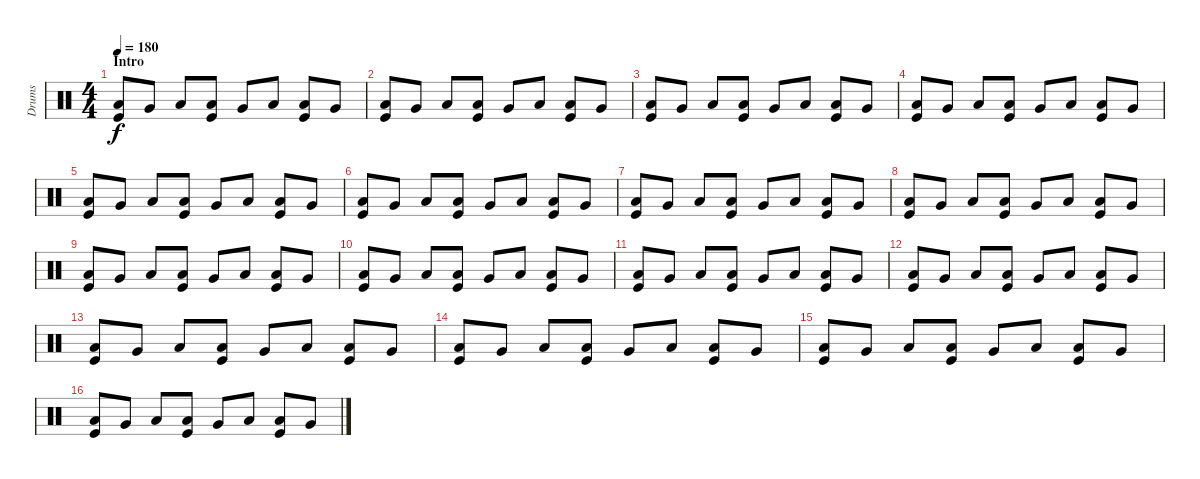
\track ("Drums" "Drums") {instrument percussion}
\staff {score}
\articulation defaults
\ts (4 4)
\section ("" "Intro")
\tempo 180
\clef neutral
\ks c
("Low Tom (hit)" "Kick (hit)").8{dy f} "Very Low Tom (hit)".8 "Low Floor Tom (hit)".8 ("Low Tom (hit)" "Kick (hit)").8 "Very Low Tom (hit)".8 "Low Floor Tom (hit)".8 ("Low Tom (hit)" "Kick (hit)").8 "Very Low Tom (hit)".8 |
("Low Tom (hit)" "Kick (hit)").8 "Very Low Tom (hit)".8 "Low Floor Tom (hit)".8 ("Low Tom (hit)" "Kick (hit)").8 "Very Low Tom (hit)".8 "Low Floor Tom (hit)".8 ("Low Tom (hit)" "Kick (hit)").8 "Very Low Tom (hit)".8 |
("Low Tom (hit)" "Kick (hit)").8 "Very Low Tom (hit)".8 "Low Floor Tom (hit)".8 ("Low Tom (hit)" "Kick (hit)").8 "Very Low Tom (hit)".8 "Low Floor Tom (hit)".8 ("Low Tom (hit)" "Kick (hit)").8 "Very Low Tom (hit)".8 |
("Low Tom (hit)" "Kick (hit)").8 "Very Low Tom (hit)".8 "Low Floor Tom (hit)".8 ("Low Tom (hit)" "Kick (hit)").8 "Very Low Tom (hit)".8 "Low Floor Tom (hit)".8 ("Low Tom (hit)" "Kick (hit)").8 "Very Low Tom (hit)".8 |
("Low Tom (hit)" "Kick (hit)").8 "Very Low Tom (hit)".8 "Low Floor Tom (hit)".8 ("Low Tom (hit)" "Kick (hit)").8 "Very Low Tom (hit)".8 "Low Floor Tom (hit)".8 ("Low Tom (hit)" "Kick (hit)").8 "Very Low Tom (hit)".8 |
("Low Tom (hit)" "Kick (hit)").8 "Very Low Tom (hit)".8 "Low Floor Tom (hit)".8 ("Low Tom (hit)" "Kick (hit)").8 "Very Low Tom (hit)".8 "Low Floor Tom (hit)".8 ("Low Tom (hit)" "Kick (hit)").8 "Very Low Tom (hit)".8 |
("Low Tom (hit)" "Kick (hit)").8 "Very Low Tom (hit)".8 "Low Floor Tom (hit)".8 ("Low Tom (hit)" "Kick (hit)").8 "Very Low Tom (hit)".8 "Low Floor Tom (hit)".8 ("Low Tom (hit)" "Kick (hit)").8 "Very Low Tom (hit)".8 |
("Low Tom (hit)" "Kick (hit)").8 "Very Low Tom (hit)".8 "Low Floor Tom (hit)".8 ("Low Tom (hit)" "Kick (hit)").8 "Very Low Tom (hit)".8 "Low Floor Tom (hit)".8 ("Low Tom (hit)" "Kick (hit)").8 "Very Low Tom (hit)".8 |
("Low Tom (hit)" "Kick (hit)").8 "Very Low Tom (hit)".8 "Low Floor Tom (hit)".8 ("Low Tom (hit)" "Kick (hit)").8 "Very Low Tom (hit)".8 "Low Floor Tom (hit)".8 ("Low Tom (hit)" "Kick (hit)").8 "Very Low Tom (hit)".8 |
("Low Tom (hit)" "Kick (hit)").8 "Very Low Tom (hit)".8 "Low Floor Tom (hit)".8 ("Low Tom (hit)" "Kick (hit)").8 "Very Low Tom (hit)".8 "Low Floor Tom (hit)".8 ("Low Tom (hit)" "Kick (hit)").8 "Very Low Tom (hit)".8 |
("Low Tom (hit)" "Kick (hit)").8 "Very Low Tom (hit)".8 "Low Floor Tom (hit)".8 ("Low Tom (hit)" "Kick (hit)").8 "Very Low Tom (hit)".8 "Low Floor Tom (hit)".8 ("Low Tom (hit)" "Kick (hit)").8 "Very Low Tom (hit)".8 |
("Low Tom (hit)" "Kick (hit)").8 "Very Low Tom (hit)".8 "Low Floor Tom (hit)".8 ("Low Tom (hit)" "Kick (hit)").8 "Very Low Tom (hit)".8 "Low Floor Tom (hit)".8 ("Low Tom (hit)" "Kick (hit)").8 "Very Low Tom (hit)".8 |
("Low Tom (hit)" "Kick (hit)").8 "Very Low Tom (hit)".8 "Low Floor Tom (hit)".8 ("Low Tom (hit)" "Kick (hit)").8 "Very Low Tom (hit)".8 "Low Floor Tom (hit)".8 ("Low Tom (hit)" "Kick (hit)").8 "Very Low Tom (hit)".8 |
("Low Tom (hit)" "Kick (hit)").8 "Very Low Tom (hit)".8 "Low Floor Tom (hit)".8 ("Low Tom (hit)" "Kick (hit)").8 "Very Low Tom (hit)".8 "Low Floor Tom (hit)".8 ("Low Tom (hit)" "Kick (hit)").8 "Very Low Tom (hit)".8 |
("Low Tom (hit)" "Kick (hit)").8 "Very Low Tom (hit)".8 "Low Floor Tom (hit)".8 ("Low Tom (hit)" "Kick (hit)").8 "Very Low Tom (hit)".8 "Low Floor Tom (hit)".8 ("Low Tom (hit)" "Kick (hit)").8 "Very Low Tom (hit)".8 |
("Low Tom (hit)" "Kick (hit)").8 "Very Low Tom (hit)".8 "Low Floor Tom (hit)".8 ("Low Tom (hit)" "Kick (hit)").8 "Very Low Tom (hit)".8 "Low Floor Tom (hit)".8 ("Low Tom (hit)" "Kick (hit)").8 "Very Low Tom (hit)".8
